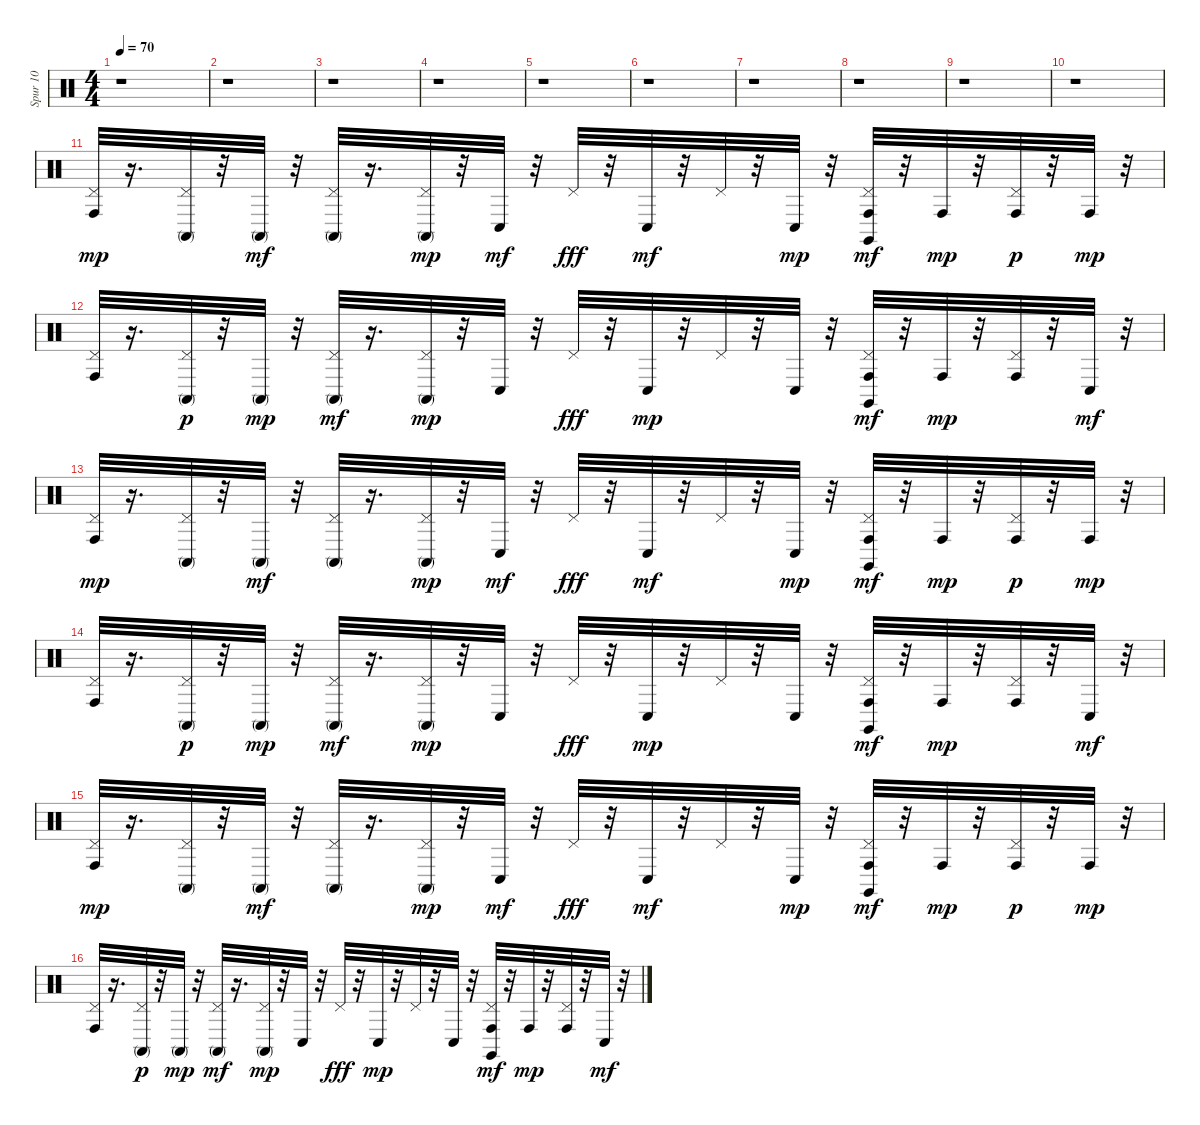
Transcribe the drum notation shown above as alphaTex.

\track ("Spur 10" "Spur 10") {instrument percussion}
\staff {score}
\articulation defaults
\ts (4 4)
\tempo 70
\clef neutral
\ks c
r.1{dy p} |
r.1 |
r.1 |
r.1 |
r.1 |
r.1 |
r.1 |
r.1 |
r.1 |
r.1 |
("Pedal Hi-Hat (hit)" "Conga high (hit)").32{dy mp} r.16{d} ("Pedal Hi-Hat (hit)" "Conga high (mute)").32 r.32 "Conga high (mute)".32{dy mf} r.32 ("Pedal Hi-Hat (hit)" "Conga high (mute)").32 r.16{d} ("Pedal Hi-Hat (hit)" "Conga high (mute)").32{dy mp} r.32 "Conga low (hit)".32{dy mf} r.32 "Pedal Hi-Hat (hit)".32{dy fff} r.32 "Conga low (hit)".32{dy mf} r.32 "Pedal Hi-Hat (hit)".32 r.32 "Conga low (hit)".32{dy mp} r.32 ("Pedal Hi-Hat (hit)" "Conga high (hit)" "Claves (hit)").32{dy mf} r.32 "Conga high (hit)".32{dy mp} r.32 ("Pedal Hi-Hat (hit)" "Conga high (hit)").32{dy p} r.32 "Conga high (hit)".32{dy mp} r.32 |
("Pedal Hi-Hat (hit)" "Conga high (hit)").32 r.16{d} ("Pedal Hi-Hat (hit)" "Conga high (mute)").32{dy p} r.32 "Conga high (mute)".32{dy mp} r.32 ("Pedal Hi-Hat (hit)" "Conga high (mute)").32{dy mf} r.16{d} ("Pedal Hi-Hat (hit)" "Conga high (mute)").32{dy mp} r.32 "Conga low (hit)".32 r.32 "Pedal Hi-Hat (hit)".32{dy fff} r.32 "Conga low (hit)".32{dy mp} r.32 "Pedal Hi-Hat (hit)".32 r.32 "Conga low (hit)".32 r.32 ("Pedal Hi-Hat (hit)" "Conga high (hit)" "Claves (hit)").32{dy mf} r.32 "Conga high (hit)".32{dy mp} r.32 ("Pedal Hi-Hat (hit)" "Conga high (hit)").32 r.32 "Conga low (hit)".32{dy mf} r.32 |
("Pedal Hi-Hat (hit)" "Conga high (hit)").32{dy mp} r.16{d} ("Pedal Hi-Hat (hit)" "Conga high (mute)").32 r.32 "Conga high (mute)".32{dy mf} r.32 ("Pedal Hi-Hat (hit)" "Conga high (mute)").32 r.16{d} ("Pedal Hi-Hat (hit)" "Conga high (mute)").32{dy mp} r.32 "Conga low (hit)".32{dy mf} r.32 "Pedal Hi-Hat (hit)".32{dy fff} r.32 "Conga low (hit)".32{dy mf} r.32 "Pedal Hi-Hat (hit)".32 r.32 "Conga low (hit)".32{dy mp} r.32 ("Pedal Hi-Hat (hit)" "Conga high (hit)" "Claves (hit)").32{dy mf} r.32 "Conga high (hit)".32{dy mp} r.32 ("Pedal Hi-Hat (hit)" "Conga high (hit)").32{dy p} r.32 "Conga high (hit)".32{dy mp} r.32 |
("Pedal Hi-Hat (hit)" "Conga high (hit)").32 r.16{d} ("Pedal Hi-Hat (hit)" "Conga high (mute)").32{dy p} r.32 "Conga high (mute)".32{dy mp} r.32 ("Pedal Hi-Hat (hit)" "Conga high (mute)").32{dy mf} r.16{d} ("Pedal Hi-Hat (hit)" "Conga high (mute)").32{dy mp} r.32 "Conga low (hit)".32 r.32 "Pedal Hi-Hat (hit)".32{dy fff} r.32 "Conga low (hit)".32{dy mp} r.32 "Pedal Hi-Hat (hit)".32 r.32 "Conga low (hit)".32 r.32 ("Pedal Hi-Hat (hit)" "Conga high (hit)" "Claves (hit)").32{dy mf} r.32 "Conga high (hit)".32{dy mp} r.32 ("Pedal Hi-Hat (hit)" "Conga high (hit)").32 r.32 "Conga low (hit)".32{dy mf} r.32 |
("Pedal Hi-Hat (hit)" "Conga high (hit)").32{dy mp} r.16{d} ("Pedal Hi-Hat (hit)" "Conga high (mute)").32 r.32 "Conga high (mute)".32{dy mf} r.32 ("Pedal Hi-Hat (hit)" "Conga high (mute)").32 r.16{d} ("Pedal Hi-Hat (hit)" "Conga high (mute)").32{dy mp} r.32 "Conga low (hit)".32{dy mf} r.32 "Pedal Hi-Hat (hit)".32{dy fff} r.32 "Conga low (hit)".32{dy mf} r.32 "Pedal Hi-Hat (hit)".32 r.32 "Conga low (hit)".32{dy mp} r.32 ("Pedal Hi-Hat (hit)" "Conga high (hit)" "Claves (hit)").32{dy mf} r.32 "Conga high (hit)".32{dy mp} r.32 ("Pedal Hi-Hat (hit)" "Conga high (hit)").32{dy p} r.32 "Conga high (hit)".32{dy mp} r.32 |
("Pedal Hi-Hat (hit)" "Conga high (hit)").32 r.16{d} ("Pedal Hi-Hat (hit)" "Conga high (mute)").32{dy p} r.32 "Conga high (mute)".32{dy mp} r.32 ("Pedal Hi-Hat (hit)" "Conga high (mute)").32{dy mf} r.16{d} ("Pedal Hi-Hat (hit)" "Conga high (mute)").32{dy mp} r.32 "Conga low (hit)".32 r.32 "Pedal Hi-Hat (hit)".32{dy fff} r.32 "Conga low (hit)".32{dy mp} r.32 "Pedal Hi-Hat (hit)".32 r.32 "Conga low (hit)".32 r.32 ("Pedal Hi-Hat (hit)" "Conga high (hit)" "Claves (hit)").32{dy mf} r.32 "Conga high (hit)".32{dy mp} r.32 ("Pedal Hi-Hat (hit)" "Conga high (hit)").32 r.32 "Conga low (hit)".32{dy mf} r.32
